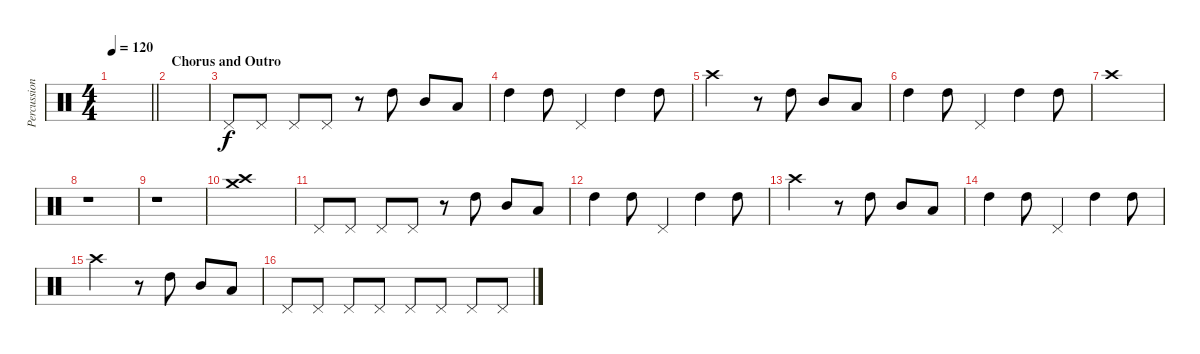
\track ("Percussion" "Percussion") {instrument percussion}
\staff {score}
\articulation defaults
\ts (4 4)
\tempo 120
\clef neutral
\barLineRight lightlight
\ks c
|
\section ("" "Chorus and Outro")
|
"Pedal Hi-Hat (hit)".8 "Pedal Hi-Hat (hit)".8 "Pedal Hi-Hat (hit)".8 "Pedal Hi-Hat (hit)".8 r.8 "High Tom (hit)".8 "Mid Tom (hit)".8 "Low Tom (hit)".8 |
"High Tom (hit)".4 "High Tom (hit)".8 "Pedal Hi-Hat (hit)".4 "High Tom (hit)".4 "High Tom (hit)".8 |
"Crash high (hit)".2 r.8 "High Tom (hit)".8 "Mid Tom (hit)".8 "Low Tom (hit)".8 |
"High Tom (hit)".4 "High Tom (hit)".8 "Pedal Hi-Hat (hit)".4 "High Tom (hit)".4 "High Tom (hit)".8 |
"Crash high (hit)".1 |
r.1 |
r.1 |
("Crash medium (hit)" "Crash high (hit)").1 |
"Pedal Hi-Hat (hit)".8 "Pedal Hi-Hat (hit)".8 "Pedal Hi-Hat (hit)".8 "Pedal Hi-Hat (hit)".8 r.8 "High Tom (hit)".8 "Mid Tom (hit)".8 "Low Tom (hit)".8 |
"High Tom (hit)".4 "High Tom (hit)".8 "Pedal Hi-Hat (hit)".4 "High Tom (hit)".4 "High Tom (hit)".8 |
"Crash high (hit)".2 r.8 "High Tom (hit)".8 "Mid Tom (hit)".8 "Low Tom (hit)".8 |
"High Tom (hit)".4 "High Tom (hit)".8 "Pedal Hi-Hat (hit)".4 "High Tom (hit)".4 "High Tom (hit)".8 |
"Crash high (hit)".2 r.8 "High Tom (hit)".8 "Mid Tom (hit)".8 "Low Tom (hit)".8 |
"Pedal Hi-Hat (hit)".8{dy f} "Pedal Hi-Hat (hit)".8 "Pedal Hi-Hat (hit)".8 "Pedal Hi-Hat (hit)".8 "Pedal Hi-Hat (hit)".8 "Pedal Hi-Hat (hit)".8 "Pedal Hi-Hat (hit)".8 "Pedal Hi-Hat (hit)".8
